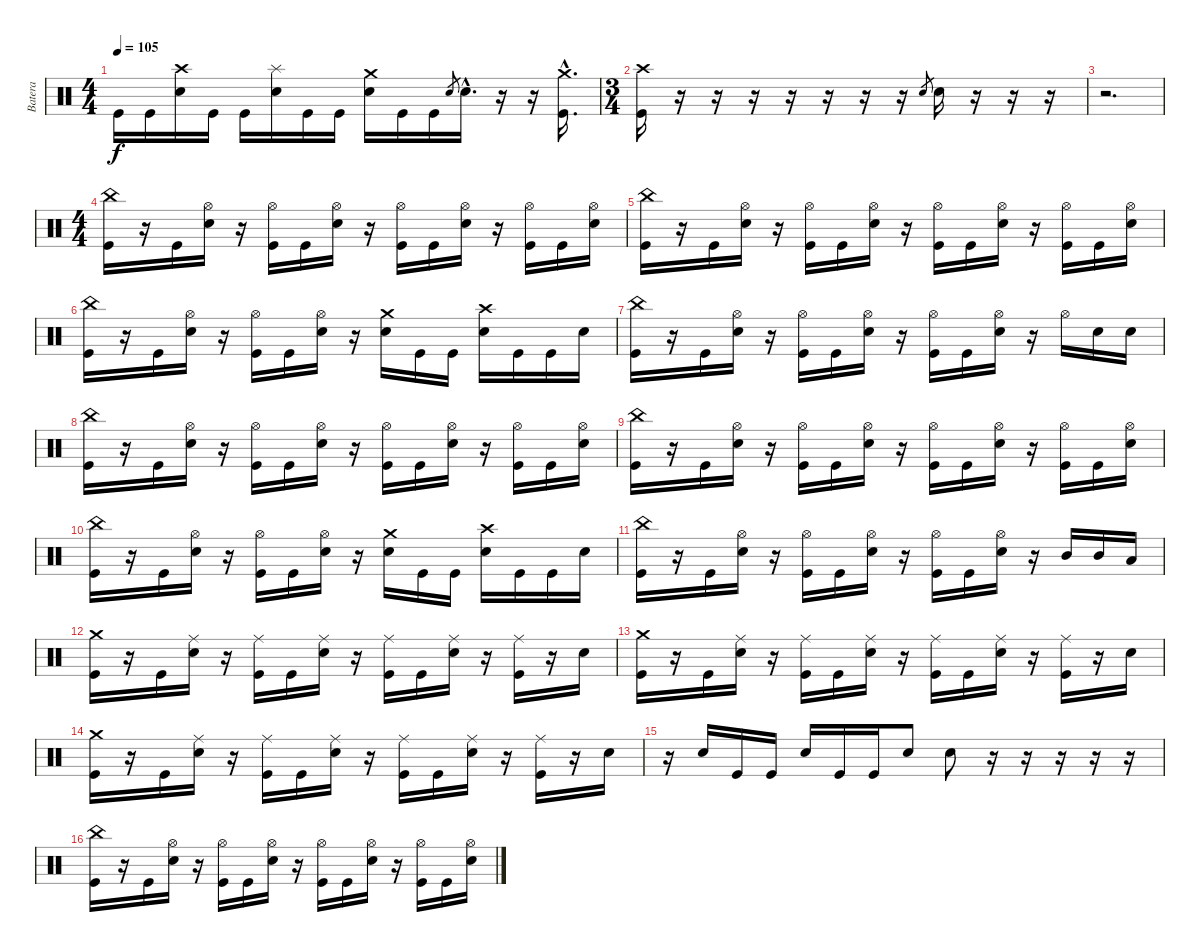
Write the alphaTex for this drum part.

\track ("Batera" "Batera") {instrument percussion}
\staff {score}
\articulation defaults
\ts (4 4)
\tempo 105
\clef neutral
\ks c "Kick (hit)".16{dy f} "Kick (hit)".16
("Crash high (hit)" "Snare (hit) 2").16 "Kick (hit)".16 "Kick (hit)".16 ("Splash (hit)" "Snare (hit) 2").16 "Kick (hit)".16 "Kick (hit)".16 ("Crash medium (hit)" "Snare (hit) 2").16 "Kick (hit)".16 "Kick (hit)".16 "Snare (hit) 2".8{gr} "Snare (hit) 2"{hac}.16{d} r.16 r.16 ("Crash medium (hit)"{hac} "Kick (hit)"{hac}).16{d} |
\ts (3 4)
("Crash high (hit)" "Kick (hit)").16 r.16 r.16 r.16 r.16 r.16 r.16 r.16 "Snare (hit) 2".8{gr} "Snare (hit) 2".16 r.16 r.16 r.16 |
r.2{d} |
\ts (4 4)
("China (hit)" "Kick (hit)").16 r.16 "Kick (hit)".16 ("Hi-Hat (open)" "Snare (hit) 2").16 r.16 ("Hi-Hat (open)" "Kick (hit)").16 "Kick (hit)".16 ("Hi-Hat (open)" "Snare (hit) 2").16 r.16 ("Hi-Hat (open)" "Kick (hit)").16 "Kick (hit)".16 ("Hi-Hat (open)" "Snare (hit) 2").16 r.16 ("Hi-Hat (open)" "Kick (hit)").16 "Kick (hit)".16 ("Hi-Hat (open)" "Snare (hit) 2").16 |
("China (hit)" "Kick (hit)").16 r.16 "Kick (hit)".16 ("Hi-Hat (open)" "Snare (hit) 2").16 r.16 ("Hi-Hat (open)" "Kick (hit)").16 "Kick (hit)".16 ("Hi-Hat (open)" "Snare (hit) 2").16 r.16 ("Hi-Hat (open)" "Kick (hit)").16 "Kick (hit)".16 ("Hi-Hat (open)" "Snare (hit) 2").16 r.16 ("Hi-Hat (open)" "Kick (hit)").16 "Kick (hit)".16 ("Hi-Hat (open)" "Snare (hit) 2").16 |
("China (hit)" "Kick (hit)").16 r.16 "Kick (hit)".16 ("Hi-Hat (open)" "Snare (hit) 2").16 r.16 ("Hi-Hat (open)" "Kick (hit)").16 "Kick (hit)".16 ("Hi-Hat (open)" "Snare (hit) 2").16 r.16 ("Crash medium (hit)" "Snare (hit) 2").16 "Kick (hit)".16 "Kick (hit)".16 ("Crash high (hit)" "Snare (hit) 2").16 "Kick (hit)".16 "Kick (hit)".16 "Snare (hit) 2".16 |
("China (hit)" "Kick (hit)").16 r.16 "Kick (hit)".16 ("Hi-Hat (open)" "Snare (hit) 2").16 r.16 ("Hi-Hat (open)" "Kick (hit)").16 "Kick (hit)".16 ("Hi-Hat (open)" "Snare (hit) 2").16 r.16 ("Hi-Hat (open)" "Kick (hit)").16 "Kick (hit)".16 ("Hi-Hat (open)" "Snare (hit) 2").16 r.16 "Hi-Hat (open)".16 "Snare (hit) 2".16 "Snare (hit) 2".16 |
("China (hit)" "Kick (hit)").16 r.16 "Kick (hit)".16 ("Hi-Hat (open)" "Snare (hit) 2").16 r.16 ("Hi-Hat (open)" "Kick (hit)").16 "Kick (hit)".16 ("Hi-Hat (open)" "Snare (hit) 2").16 r.16 ("Hi-Hat (open)" "Kick (hit)").16 "Kick (hit)".16 ("Hi-Hat (open)" "Snare (hit) 2").16 r.16 ("Hi-Hat (open)" "Kick (hit)").16 "Kick (hit)".16 ("Hi-Hat (open)" "Snare (hit) 2").16 |
("China (hit)" "Kick (hit)").16 r.16 "Kick (hit)".16 ("Hi-Hat (open)" "Snare (hit) 2").16 r.16 ("Hi-Hat (open)" "Kick (hit)").16 "Kick (hit)".16 ("Hi-Hat (open)" "Snare (hit) 2").16 r.16 ("Hi-Hat (open)" "Kick (hit)").16 "Kick (hit)".16 ("Hi-Hat (open)" "Snare (hit) 2").16 r.16 ("Hi-Hat (open)" "Kick (hit)").16 "Kick (hit)".16 ("Hi-Hat (open)" "Snare (hit) 2").16 |
("China (hit)" "Kick (hit)").16 r.16 "Kick (hit)".16 ("Hi-Hat (open)" "Snare (hit) 2").16 r.16 ("Hi-Hat (open)" "Kick (hit)").16 "Kick (hit)".16 ("Hi-Hat (open)" "Snare (hit) 2").16 r.16 ("Crash medium (hit)" "Snare (hit) 2").16 "Kick (hit)".16 "Kick (hit)".16 ("Crash high (hit)" "Snare (hit) 2").16 "Kick (hit)".16 "Kick (hit)".16 "Snare (hit) 2".16 |
("China (hit)" "Kick (hit)").16 r.16 "Kick (hit)".16 ("Hi-Hat (open)" "Snare (hit) 2").16 r.16 ("Hi-Hat (open)" "Kick (hit)").16 "Kick (hit)".16 ("Hi-Hat (open)" "Snare (hit) 2").16 r.16 ("Hi-Hat (open)" "Kick (hit)").16 "Kick (hit)".16 ("Hi-Hat (open)" "Snare (hit) 2").16 r.16 "Mid Tom (hit)".16 "Mid Tom (hit)".16 "Low Tom (hit)".16 |
("Crash medium (hit)" "Kick (hit)").16 r.16 "Kick (hit)".16 ("Ride (middle)" "Snare (hit) 2").16 r.16 ("Ride (middle)" "Kick (hit)").16 "Kick (hit)".16 ("Ride (middle)" "Snare (hit) 2").16 r.16 ("Ride (middle)" "Kick (hit)").16 "Kick (hit)".16 ("Ride (middle)" "Snare (hit) 2").16 r.16 ("Ride (middle)" "Kick (hit)").16 r.16 "Snare (hit) 2".16 |
("Crash medium (hit)" "Kick (hit)").16 r.16 "Kick (hit)".16 ("Ride (middle)" "Snare (hit) 2").16 r.16 ("Ride (middle)" "Kick (hit)").16 "Kick (hit)".16 ("Ride (middle)" "Snare (hit) 2").16 r.16 ("Ride (middle)" "Kick (hit)").16 "Kick (hit)".16 ("Ride (middle)" "Snare (hit) 2").16 r.16 ("Ride (middle)" "Kick (hit)").16 r.16 "Snare (hit) 2".16 |
("Crash medium (hit)" "Kick (hit)").16 r.16 "Kick (hit)".16 ("Ride (middle)" "Snare (hit) 2").16 r.16 ("Ride (middle)" "Kick (hit)").16 "Kick (hit)".16 ("Ride (middle)" "Snare (hit) 2").16 r.16 ("Ride (middle)" "Kick (hit)").16 "Kick (hit)".16 ("Ride (middle)" "Snare (hit) 2").16 r.16 ("Ride (middle)" "Kick (hit)").16 r.16 "Snare (hit) 2".16 |
r.16 "Snare (hit) 2".16 "Kick (hit)".16 "Kick (hit)".16 "Snare (hit) 2".16 "Kick (hit)".16 "Kick (hit)".16 "Snare (hit) 2".8 "Snare (hit) 2".8 r.16 r.16 r.16 r.16 r.16 |
("China (hit)" "Kick (hit)").16 r.16 "Kick (hit)".16 ("Hi-Hat (open)" "Snare (hit) 2").16 r.16 ("Hi-Hat (open)" "Kick (hit)").16 "Kick (hit)".16 ("Hi-Hat (open)" "Snare (hit) 2").16 r.16 ("Hi-Hat (open)" "Kick (hit)").16 "Kick (hit)".16 ("Hi-Hat (open)" "Snare (hit) 2").16 r.16 ("Hi-Hat (open)" "Kick (hit)").16 "Kick (hit)".16 ("Hi-Hat (open)" "Snare (hit) 2").16
